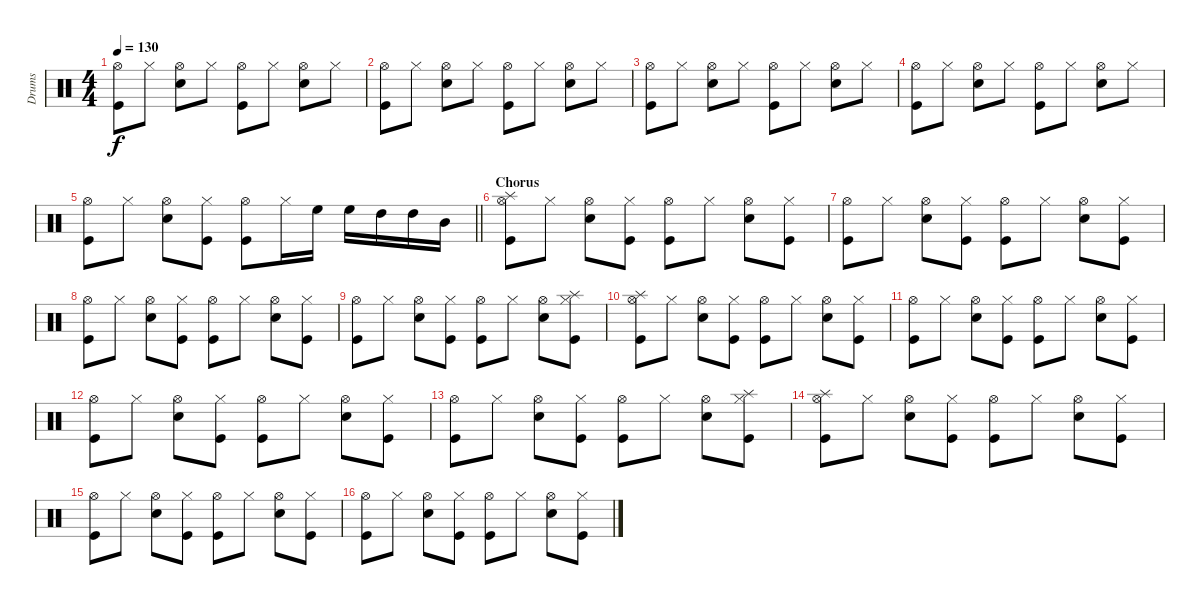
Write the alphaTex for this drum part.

\track ("Drums" "Drums") {instrument percussion}
\staff {score}
\articulation defaults
\ts (4 4)
\tempo 130
\clef neutral
\ks c
("Hi-Hat (open)" "Kick (hit)").8{dy f} "Hi-Hat (closed)".8 ("Electric Snare (hit)" "Hi-Hat (open)").8 "Hi-Hat (closed)".8 ("Hi-Hat (open)" "Kick (hit)").8 "Hi-Hat (closed)".8 ("Electric Snare (hit)" "Hi-Hat (open)").8 "Hi-Hat (closed)".8 |
("Hi-Hat (open)" "Kick (hit)").8 "Hi-Hat (closed)".8 ("Electric Snare (hit)" "Hi-Hat (open)").8 "Hi-Hat (closed)".8 ("Hi-Hat (open)" "Kick (hit)").8 "Hi-Hat (closed)".8 ("Electric Snare (hit)" "Hi-Hat (open)").8 "Hi-Hat (closed)".8 |
("Hi-Hat (open)" "Kick (hit)").8 "Hi-Hat (closed)".8 ("Electric Snare (hit)" "Hi-Hat (open)").8 "Hi-Hat (closed)".8 ("Hi-Hat (open)" "Kick (hit)").8 "Hi-Hat (closed)".8 ("Electric Snare (hit)" "Hi-Hat (open)").8 "Hi-Hat (closed)".8 |
("Hi-Hat (open)" "Kick (hit)").8 "Hi-Hat (closed)".8 ("Electric Snare (hit)" "Hi-Hat (open)").8 "Hi-Hat (closed)".8 ("Hi-Hat (open)" "Kick (hit)").8 "Hi-Hat (closed)".8 ("Electric Snare (hit)" "Hi-Hat (open)").8 "Hi-Hat (closed)".8 |
\barLineRight lightlight
("Hi-Hat (open)" "Kick (hit)").8 "Hi-Hat (closed)".8 ("Electric Snare (hit)" "Hi-Hat (open)").8 ("Hi-Hat (closed)" "Kick (hit)").8 ("Hi-Hat (open)" "Kick (hit)").8 "Hi-Hat (closed)".16 "High Floor Tom (hit)".16 "High Floor Tom (hit)".16 "High Tom (hit)".16 "High Tom (hit)".16 "Mid Tom (hit)".16 |
\section ("" "Chorus")
("Splash (hit)" "Hi-Hat (open)" "Kick (hit)").8 "Hi-Hat (closed)".8 ("Electric Snare (hit)" "Hi-Hat (open)").8 ("Hi-Hat (closed)" "Kick (hit)").8 ("Hi-Hat (open)" "Kick (hit)").8 "Hi-Hat (closed)".8 ("Electric Snare (hit)" "Hi-Hat (open)").8 ("Hi-Hat (closed)" "Kick (hit)").8 |
("Hi-Hat (open)" "Kick (hit)").8 "Hi-Hat (closed)".8 ("Electric Snare (hit)" "Hi-Hat (open)").8 ("Hi-Hat (closed)" "Kick (hit)").8 ("Hi-Hat (open)" "Kick (hit)").8 "Hi-Hat (closed)".8 ("Electric Snare (hit)" "Hi-Hat (open)").8 ("Hi-Hat (closed)" "Kick (hit)").8 |
("Hi-Hat (open)" "Kick (hit)").8 "Hi-Hat (closed)".8 ("Electric Snare (hit)" "Hi-Hat (open)").8 ("Hi-Hat (closed)" "Kick (hit)").8 ("Hi-Hat (open)" "Kick (hit)").8 "Hi-Hat (closed)".8 ("Electric Snare (hit)" "Hi-Hat (open)").8 ("Hi-Hat (closed)" "Kick (hit)").8 |
("Hi-Hat (open)" "Kick (hit)").8 "Hi-Hat (closed)".8 ("Electric Snare (hit)" "Hi-Hat (open)").8 ("Hi-Hat (closed)" "Kick (hit)").8 ("Hi-Hat (open)" "Kick (hit)").8 "Hi-Hat (closed)".8 ("Electric Snare (hit)" "Hi-Hat (open)").8 ("Splash (hit)" "Hi-Hat (closed)" "Kick (hit)").8 |
("Splash (hit)" "Hi-Hat (open)" "Kick (hit)").8 "Hi-Hat (closed)".8 ("Electric Snare (hit)" "Hi-Hat (open)").8 ("Hi-Hat (closed)" "Kick (hit)").8 ("Hi-Hat (open)" "Kick (hit)").8 "Hi-Hat (closed)".8 ("Electric Snare (hit)" "Hi-Hat (open)").8 ("Hi-Hat (closed)" "Kick (hit)").8 |
("Hi-Hat (open)" "Kick (hit)").8 "Hi-Hat (closed)".8 ("Electric Snare (hit)" "Hi-Hat (open)").8 ("Hi-Hat (closed)" "Kick (hit)").8 ("Hi-Hat (open)" "Kick (hit)").8 "Hi-Hat (closed)".8 ("Electric Snare (hit)" "Hi-Hat (open)").8 ("Hi-Hat (closed)" "Kick (hit)").8 |
("Hi-Hat (open)" "Kick (hit)").8 "Hi-Hat (closed)".8 ("Electric Snare (hit)" "Hi-Hat (open)").8 ("Hi-Hat (closed)" "Kick (hit)").8 ("Hi-Hat (open)" "Kick (hit)").8 "Hi-Hat (closed)".8 ("Electric Snare (hit)" "Hi-Hat (open)").8 ("Hi-Hat (closed)" "Kick (hit)").8 |
("Hi-Hat (open)" "Kick (hit)").8 "Hi-Hat (closed)".8 ("Electric Snare (hit)" "Hi-Hat (open)").8 ("Hi-Hat (closed)" "Kick (hit)").8 ("Hi-Hat (open)" "Kick (hit)").8 "Hi-Hat (closed)".8 ("Electric Snare (hit)" "Hi-Hat (open)").8 ("Splash (hit)" "Hi-Hat (closed)" "Kick (hit)").8 |
("Splash (hit)" "Hi-Hat (open)" "Kick (hit)").8 "Hi-Hat (closed)".8 ("Electric Snare (hit)" "Hi-Hat (open)").8 ("Hi-Hat (closed)" "Kick (hit)").8 ("Hi-Hat (open)" "Kick (hit)").8 "Hi-Hat (closed)".8 ("Electric Snare (hit)" "Hi-Hat (open)").8 ("Hi-Hat (closed)" "Kick (hit)").8 |
("Hi-Hat (open)" "Kick (hit)").8 "Hi-Hat (closed)".8 ("Electric Snare (hit)" "Hi-Hat (open)").8 ("Hi-Hat (closed)" "Kick (hit)").8 ("Hi-Hat (open)" "Kick (hit)").8 "Hi-Hat (closed)".8 ("Electric Snare (hit)" "Hi-Hat (open)").8 ("Hi-Hat (closed)" "Kick (hit)").8 |
("Hi-Hat (open)" "Kick (hit)").8 "Hi-Hat (closed)".8 ("Electric Snare (hit)" "Hi-Hat (open)").8 ("Hi-Hat (closed)" "Kick (hit)").8 ("Hi-Hat (open)" "Kick (hit)").8 "Hi-Hat (closed)".8 ("Electric Snare (hit)" "Hi-Hat (open)").8 ("Hi-Hat (closed)" "Kick (hit)").8
